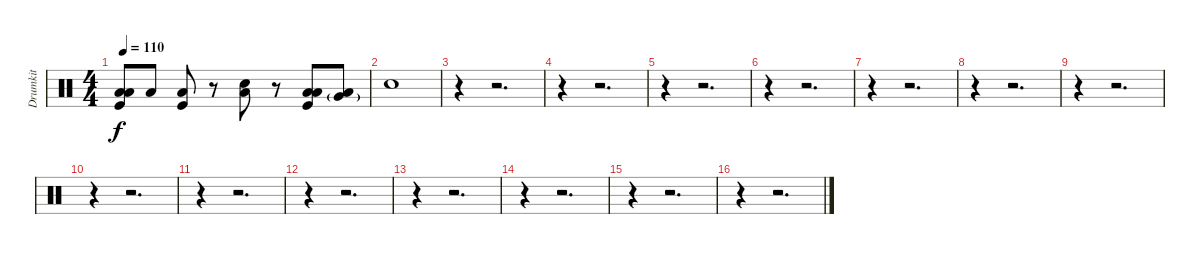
\track ("Drumkit" "Drumkit") {instrument percussion}
\staff {score}
\articulation defaults
\ts (4 4)
\tempo 110
\clef neutral
\ks c
("Low Tom (hit)" "Low Floor Tom (hit)" "Kick (hit)").8{dy f} "Low Floor Tom (hit)".8 ("Low Tom (hit)" "Kick (hit)").8 r.8 ("Low Floor Tom (hit)" "Snare (hit) 2").8 r.8 ("Low Tom (hit)" "Low Floor Tom (hit)" "Kick (hit)").8 ("Very Low Tom (hit)"{g} "Low Floor Tom (hit)").8 |
"Snare (hit) 2".1 |
r.4 r.2{d} |
r.4 r.2{d} |
r.4 r.2{d} |
r.4 r.2{d} |
r.4 r.2{d} |
r.4 r.2{d} |
r.4 r.2{d} |
r.4 r.2{d} |
r.4 r.2{d} |
r.4 r.2{d} |
r.4 r.2{d} |
r.4 r.2{d} |
r.4 r.2{d} |
r.4 r.2{d}
